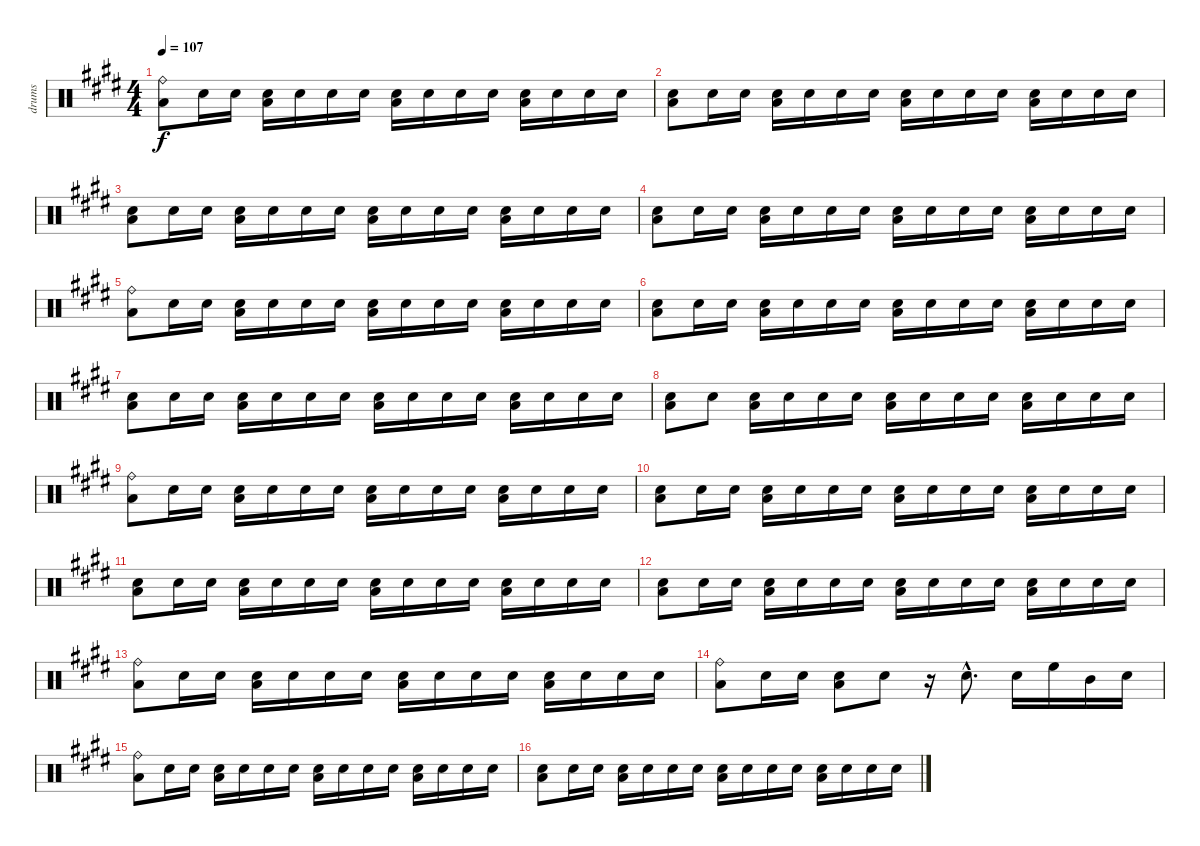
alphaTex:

\track ("drums" "drums") {instrument percussion}
\staff {score}
\articulation defaults
\ts (4 4)
\tempo 107
\clef neutral
\ks e
("Ride (bell)" "Low Floor Tom (hit)").8{dy f} "Electric Snare (hit)".16 "Electric Snare (hit)".16 ("Electric Snare (hit)" "Low Floor Tom (hit)").16 "Electric Snare (hit)".16 "Electric Snare (hit)".16 "Electric Snare (hit)".16 ("Electric Snare (hit)" "Low Floor Tom (hit)").16 "Electric Snare (hit)".16 "Electric Snare (hit)".16 "Electric Snare (hit)".16 ("Electric Snare (hit)" "Low Floor Tom (hit)").16 "Electric Snare (hit)".16 "Electric Snare (hit)".16 "Electric Snare (hit)".16 |
("Electric Snare (hit)" "Low Floor Tom (hit)").8 "Electric Snare (hit)".16 "Electric Snare (hit)".16 ("Electric Snare (hit)" "Low Floor Tom (hit)").16 "Electric Snare (hit)".16 "Electric Snare (hit)".16 "Electric Snare (hit)".16 ("Electric Snare (hit)" "Low Floor Tom (hit)").16 "Electric Snare (hit)".16 "Electric Snare (hit)".16 "Electric Snare (hit)".16 ("Electric Snare (hit)" "Low Floor Tom (hit)").16 "Electric Snare (hit)".16 "Electric Snare (hit)".16 "Electric Snare (hit)".16 |
("Electric Snare (hit)" "Low Floor Tom (hit)").8 "Electric Snare (hit)".16 "Electric Snare (hit)".16 ("Electric Snare (hit)" "Low Floor Tom (hit)").16 "Electric Snare (hit)".16 "Electric Snare (hit)".16 "Electric Snare (hit)".16 ("Electric Snare (hit)" "Low Floor Tom (hit)").16 "Electric Snare (hit)".16 "Electric Snare (hit)".16 "Electric Snare (hit)".16 ("Electric Snare (hit)" "Low Floor Tom (hit)").16 "Electric Snare (hit)".16 "Electric Snare (hit)".16 "Electric Snare (hit)".16 |
("Electric Snare (hit)" "Low Floor Tom (hit)").8 "Electric Snare (hit)".16 "Electric Snare (hit)".16 ("Electric Snare (hit)" "Low Floor Tom (hit)").16 "Electric Snare (hit)".16 "Electric Snare (hit)".16 "Electric Snare (hit)".16 ("Electric Snare (hit)" "Low Floor Tom (hit)").16 "Electric Snare (hit)".16 "Electric Snare (hit)".16 "Electric Snare (hit)".16 ("Electric Snare (hit)" "Low Floor Tom (hit)").16 "Electric Snare (hit)".16 "Electric Snare (hit)".16 "Electric Snare (hit)".16 |
("Ride (bell)" "Low Floor Tom (hit)").8 "Electric Snare (hit)".16 "Electric Snare (hit)".16 ("Electric Snare (hit)" "Low Floor Tom (hit)").16 "Electric Snare (hit)".16 "Electric Snare (hit)".16 "Electric Snare (hit)".16 ("Electric Snare (hit)" "Low Floor Tom (hit)").16 "Electric Snare (hit)".16 "Electric Snare (hit)".16 "Electric Snare (hit)".16 ("Electric Snare (hit)" "Low Floor Tom (hit)").16 "Electric Snare (hit)".16 "Electric Snare (hit)".16 "Electric Snare (hit)".16 |
("Electric Snare (hit)" "Low Floor Tom (hit)").8 "Electric Snare (hit)".16 "Electric Snare (hit)".16 ("Electric Snare (hit)" "Low Floor Tom (hit)").16 "Electric Snare (hit)".16 "Electric Snare (hit)".16 "Electric Snare (hit)".16 ("Electric Snare (hit)" "Low Floor Tom (hit)").16 "Electric Snare (hit)".16 "Electric Snare (hit)".16 "Electric Snare (hit)".16 ("Electric Snare (hit)" "Low Floor Tom (hit)").16 "Electric Snare (hit)".16 "Electric Snare (hit)".16 "Electric Snare (hit)".16 |
("Electric Snare (hit)" "Low Floor Tom (hit)").8 "Electric Snare (hit)".16 "Electric Snare (hit)".16 ("Electric Snare (hit)" "Low Floor Tom (hit)").16 "Electric Snare (hit)".16 "Electric Snare (hit)".16 "Electric Snare (hit)".16 ("Electric Snare (hit)" "Low Floor Tom (hit)").16 "Electric Snare (hit)".16 "Electric Snare (hit)".16 "Electric Snare (hit)".16 ("Electric Snare (hit)" "Low Floor Tom (hit)").16 "Electric Snare (hit)".16 "Electric Snare (hit)".16 "Electric Snare (hit)".16 |
("Electric Snare (hit)" "Low Floor Tom (hit)").8 "Electric Snare (hit)".8 ("Electric Snare (hit)" "Low Floor Tom (hit)").16 "Electric Snare (hit)".16 "Electric Snare (hit)".16 "Electric Snare (hit)".16 ("Electric Snare (hit)" "Low Floor Tom (hit)").16 "Electric Snare (hit)".16 "Electric Snare (hit)".16 "Electric Snare (hit)".16 ("Electric Snare (hit)" "Low Floor Tom (hit)").16 "Electric Snare (hit)".16 "Electric Snare (hit)".16 "Electric Snare (hit)".16 |
("Ride (bell)" "Low Floor Tom (hit)").8 "Electric Snare (hit)".16 "Electric Snare (hit)".16 ("Electric Snare (hit)" "Low Floor Tom (hit)").16 "Electric Snare (hit)".16 "Electric Snare (hit)".16 "Electric Snare (hit)".16 ("Electric Snare (hit)" "Low Floor Tom (hit)").16 "Electric Snare (hit)".16 "Electric Snare (hit)".16 "Electric Snare (hit)".16 ("Electric Snare (hit)" "Low Floor Tom (hit)").16 "Electric Snare (hit)".16 "Electric Snare (hit)".16 "Electric Snare (hit)".16 |
("Electric Snare (hit)" "Low Floor Tom (hit)").8 "Electric Snare (hit)".16 "Electric Snare (hit)".16 ("Electric Snare (hit)" "Low Floor Tom (hit)").16 "Electric Snare (hit)".16 "Electric Snare (hit)".16 "Electric Snare (hit)".16 ("Electric Snare (hit)" "Low Floor Tom (hit)").16 "Electric Snare (hit)".16 "Electric Snare (hit)".16 "Electric Snare (hit)".16 ("Electric Snare (hit)" "Low Floor Tom (hit)").16 "Electric Snare (hit)".16 "Electric Snare (hit)".16 "Electric Snare (hit)".16 |
("Electric Snare (hit)" "Low Floor Tom (hit)").8 "Electric Snare (hit)".16 "Electric Snare (hit)".16 ("Electric Snare (hit)" "Low Floor Tom (hit)").16 "Electric Snare (hit)".16 "Electric Snare (hit)".16 "Electric Snare (hit)".16 ("Electric Snare (hit)" "Low Floor Tom (hit)").16 "Electric Snare (hit)".16 "Electric Snare (hit)".16 "Electric Snare (hit)".16 ("Electric Snare (hit)" "Low Floor Tom (hit)").16 "Electric Snare (hit)".16 "Electric Snare (hit)".16 "Electric Snare (hit)".16 |
("Electric Snare (hit)" "Low Floor Tom (hit)").8 "Electric Snare (hit)".16 "Electric Snare (hit)".16 ("Electric Snare (hit)" "Low Floor Tom (hit)").16 "Electric Snare (hit)".16 "Electric Snare (hit)".16 "Electric Snare (hit)".16 ("Electric Snare (hit)" "Low Floor Tom (hit)").16 "Electric Snare (hit)".16 "Electric Snare (hit)".16 "Electric Snare (hit)".16 ("Electric Snare (hit)" "Low Floor Tom (hit)").16 "Electric Snare (hit)".16 "Electric Snare (hit)".16 "Electric Snare (hit)".16 |
("Ride (bell)" "Low Floor Tom (hit)").8 "Electric Snare (hit)".16 "Electric Snare (hit)".16 ("Electric Snare (hit)" "Low Floor Tom (hit)").16 "Electric Snare (hit)".16 "Electric Snare (hit)".16 "Electric Snare (hit)".16 ("Electric Snare (hit)" "Low Floor Tom (hit)").16 "Electric Snare (hit)".16 "Electric Snare (hit)".16 "Electric Snare (hit)".16 ("Electric Snare (hit)" "Low Floor Tom (hit)").16 "Electric Snare (hit)".16 "Electric Snare (hit)".16 "Electric Snare (hit)".16 |
("Ride (bell)" "Low Floor Tom (hit)").8 "Electric Snare (hit)".16 "Electric Snare (hit)".16 ("Electric Snare (hit)" "Low Floor Tom (hit)").8 "Electric Snare (hit)".8 r.16 "Electric Snare (hit)"{hac}.8{d} "Electric Snare (hit)".16 "High Floor Tom (hit)".16 "Mid Tom (hit)".16 "Snare (hit) 2".16 |
("Ride (bell)" "Low Floor Tom (hit)").8 "Electric Snare (hit)".16 "Electric Snare (hit)".16 ("Electric Snare (hit)" "Low Floor Tom (hit)").16 "Electric Snare (hit)".16 "Electric Snare (hit)".16 "Electric Snare (hit)".16 ("Electric Snare (hit)" "Low Floor Tom (hit)").16 "Electric Snare (hit)".16 "Electric Snare (hit)".16 "Electric Snare (hit)".16 ("Electric Snare (hit)" "Low Floor Tom (hit)").16 "Electric Snare (hit)".16 "Electric Snare (hit)".16 "Electric Snare (hit)".16 |
("Electric Snare (hit)" "Low Floor Tom (hit)").8 "Electric Snare (hit)".16 "Electric Snare (hit)".16 ("Electric Snare (hit)" "Low Floor Tom (hit)").16 "Electric Snare (hit)".16 "Electric Snare (hit)".16 "Electric Snare (hit)".16 ("Electric Snare (hit)" "Low Floor Tom (hit)").16 "Electric Snare (hit)".16 "Electric Snare (hit)".16 "Electric Snare (hit)".16 ("Electric Snare (hit)" "Low Floor Tom (hit)").16 "Electric Snare (hit)".16 "Electric Snare (hit)".16 "Electric Snare (hit)".16
